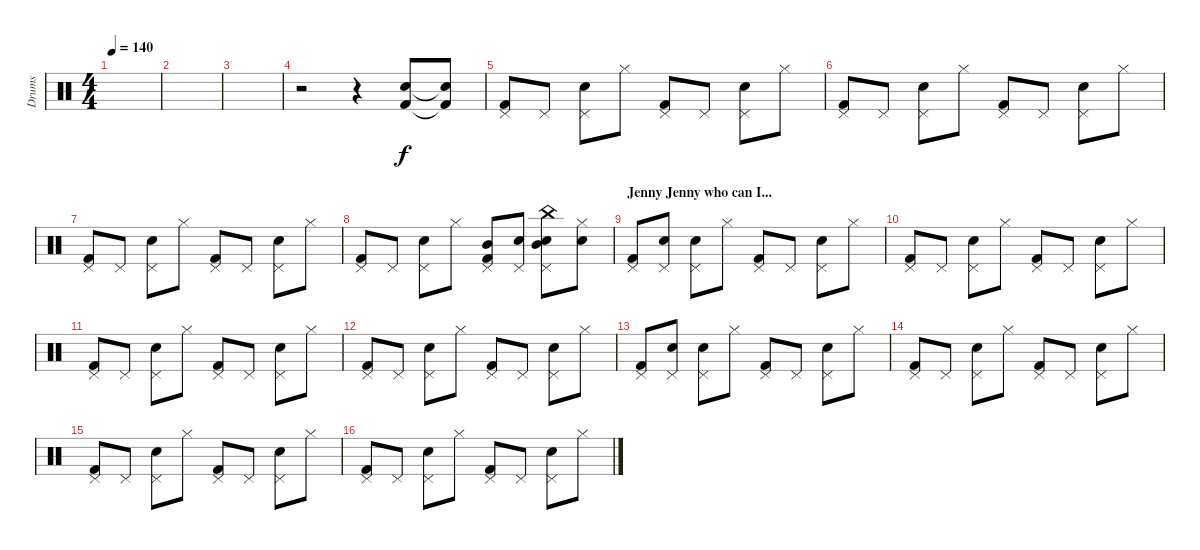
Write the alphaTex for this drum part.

\track ("Drums" "Drums") {instrument percussion}
\staff {score}
\articulation defaults
\ts (4 4)
\tempo 140
\clef neutral
\ks c
|
|
|
r.2 r.4 ("Kick (hit) 2" "Snare (hit) 2").8 ("Kick (hit) 2"{t} "Snare (hit)"{t}).8 |
("Kick (hit) 2" "Pedal Hi-Hat (hit)").8 "Pedal Hi-Hat (hit)".8 ("Snare (hit) 2" "Pedal Hi-Hat (hit)").8 "Hi-Hat (closed)".8 ("Kick (hit) 2" "Pedal Hi-Hat (hit)").8 "Pedal Hi-Hat (hit)".8 ("Snare (hit) 2" "Pedal Hi-Hat (hit)").8 "Hi-Hat (closed)".8 |
("Kick (hit) 2" "Pedal Hi-Hat (hit)").8 "Pedal Hi-Hat (hit)".8 ("Snare (hit) 2" "Pedal Hi-Hat (hit)").8 "Hi-Hat (closed)".8 ("Kick (hit) 2" "Pedal Hi-Hat (hit)").8 "Pedal Hi-Hat (hit)".8 ("Snare (hit) 2" "Pedal Hi-Hat (hit)").8 "Hi-Hat (closed)".8 |
("Kick (hit) 2" "Pedal Hi-Hat (hit)").8 "Pedal Hi-Hat (hit)".8 ("Snare (hit) 2" "Pedal Hi-Hat (hit)").8 "Hi-Hat (closed)".8 ("Kick (hit) 2" "Pedal Hi-Hat (hit)").8 "Pedal Hi-Hat (hit)".8 ("Snare (hit) 2" "Pedal Hi-Hat (hit)").8 "Hi-Hat (closed)".8 |
("Kick (hit) 2" "Pedal Hi-Hat (hit)").8 "Pedal Hi-Hat (hit)".8 ("Snare (hit) 2" "Pedal Hi-Hat (hit)").8 "Hi-Hat (closed)".8 ("Kick (hit) 2" "Mid Tom (hit)" "Pedal Hi-Hat (hit)").8 ("Hand Clap (hit)" "Pedal Hi-Hat (hit)").8 ("Snare (hit) 2" "China (hit)" "Mid Tom (hit)" "Pedal Hi-Hat (hit)").8 ("Hand Clap (hit)" "Hi-Hat (closed)").8 |
\section ("" "Jenny Jenny who can I...")
("Kick (hit) 2" "Pedal Hi-Hat (hit)").8 ("Hand Clap (hit)" "Pedal Hi-Hat (hit)").8 ("Snare (hit) 2" "Pedal Hi-Hat (hit)").8 "Hi-Hat (closed)".8 ("Kick (hit) 2" "Pedal Hi-Hat (hit)").8 "Pedal Hi-Hat (hit)".8 ("Snare (hit) 2" "Pedal Hi-Hat (hit)").8 "Hi-Hat (closed)".8 |
("Kick (hit) 2" "Pedal Hi-Hat (hit)").8 "Pedal Hi-Hat (hit)".8 ("Snare (hit) 2" "Pedal Hi-Hat (hit)").8 "Hi-Hat (closed)".8 ("Kick (hit) 2" "Pedal Hi-Hat (hit)").8 "Pedal Hi-Hat (hit)".8 ("Snare (hit) 2" "Pedal Hi-Hat (hit)").8 "Hi-Hat (closed)".8 |
("Kick (hit) 2" "Pedal Hi-Hat (hit)").8 "Pedal Hi-Hat (hit)".8 ("Snare (hit) 2" "Pedal Hi-Hat (hit)").8 "Hi-Hat (closed)".8 ("Kick (hit) 2" "Pedal Hi-Hat (hit)").8 "Pedal Hi-Hat (hit)".8 ("Snare (hit) 2" "Pedal Hi-Hat (hit)").8 "Hi-Hat (closed)".8 |
("Kick (hit) 2" "Pedal Hi-Hat (hit)").8 "Pedal Hi-Hat (hit)".8 ("Snare (hit) 2" "Pedal Hi-Hat (hit)").8 "Hi-Hat (closed)".8 ("Kick (hit) 2" "Pedal Hi-Hat (hit)").8 "Pedal Hi-Hat (hit)".8 ("Snare (hit) 2" "Pedal Hi-Hat (hit)").8 "Hi-Hat (closed)".8 |
("Kick (hit) 2" "Pedal Hi-Hat (hit)").8 ("Hand Clap (hit)" "Pedal Hi-Hat (hit)").8 ("Snare (hit) 2" "Pedal Hi-Hat (hit)").8 "Hi-Hat (closed)".8 ("Kick (hit) 2" "Pedal Hi-Hat (hit)").8 "Pedal Hi-Hat (hit)".8 ("Snare (hit) 2" "Pedal Hi-Hat (hit)").8 "Hi-Hat (closed)".8 |
("Kick (hit) 2" "Pedal Hi-Hat (hit)").8 "Pedal Hi-Hat (hit)".8 ("Snare (hit) 2" "Pedal Hi-Hat (hit)").8 "Hi-Hat (closed)".8 ("Kick (hit) 2" "Pedal Hi-Hat (hit)").8 "Pedal Hi-Hat (hit)".8 ("Snare (hit) 2" "Pedal Hi-Hat (hit)").8 "Hi-Hat (closed)".8 |
("Kick (hit) 2" "Pedal Hi-Hat (hit)").8 "Pedal Hi-Hat (hit)".8 ("Snare (hit) 2" "Pedal Hi-Hat (hit)").8 "Hi-Hat (closed)".8 ("Kick (hit) 2" "Pedal Hi-Hat (hit)").8 "Pedal Hi-Hat (hit)".8 ("Snare (hit) 2" "Pedal Hi-Hat (hit)").8 "Hi-Hat (closed)".8 |
("Kick (hit) 2" "Pedal Hi-Hat (hit)").8 "Pedal Hi-Hat (hit)".8 ("Snare (hit) 2" "Pedal Hi-Hat (hit)").8 "Hi-Hat (closed)".8 ("Kick (hit) 2" "Pedal Hi-Hat (hit)").8 "Pedal Hi-Hat (hit)".8 ("Snare (hit) 2" "Pedal Hi-Hat (hit)").8 "Hi-Hat (closed)".8
